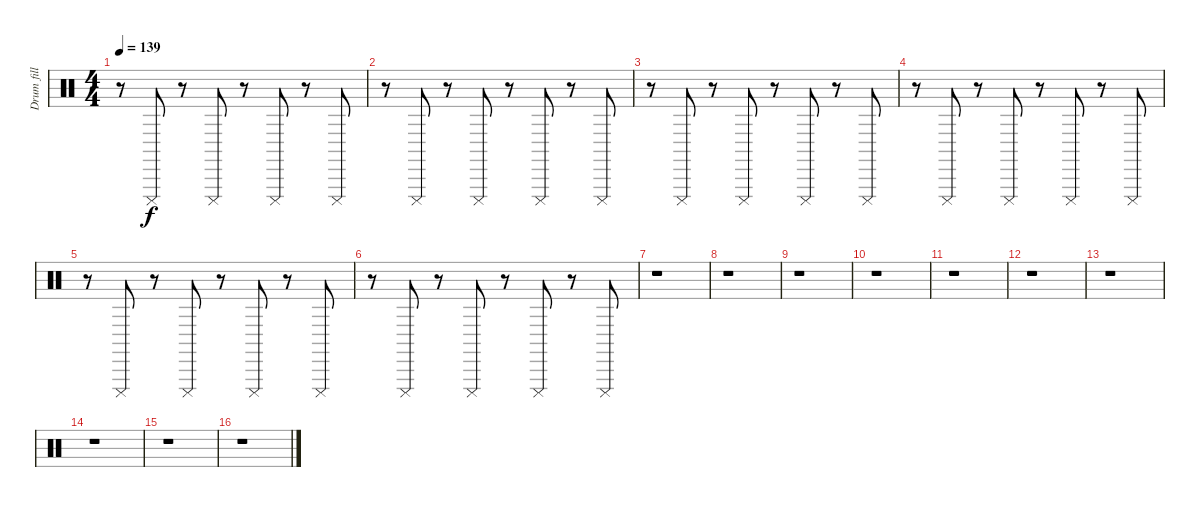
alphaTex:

\track ("Drum fill" "Drum fill") {instrument percussion}
\staff {score}
\articulation defaults
\ts (4 4)
\tempo 139
\clef neutral
\ks c
r.8{dy f} "Cuica (mute)".8 r.8 "Cuica (mute)".8 r.8 "Cuica (mute)".8 r.8 "Cuica (mute)".8 |
r.8 "Cuica (mute)".8 r.8 "Cuica (mute)".8 r.8 "Cuica (mute)".8 r.8 "Cuica (mute)".8 |
r.8 "Cuica (mute)".8 r.8 "Cuica (mute)".8 r.8 "Cuica (mute)".8 r.8 "Cuica (mute)".8 |
r.8 "Cuica (mute)".8 r.8 "Cuica (mute)".8 r.8 "Cuica (mute)".8 r.8 "Cuica (mute)".8 |
r.8 "Cuica (mute)".8 r.8 "Cuica (mute)".8 r.8 "Cuica (mute)".8 r.8 "Cuica (mute)".8 |
r.8 "Cuica (mute)".8 r.8 "Cuica (mute)".8 r.8 "Cuica (mute)".8 r.8 "Cuica (mute)".8 |
r.1 |
r.1 |
r.1 |
r.1 |
r.1 |
r.1 |
r.1 |
r.1 |
r.1 |
r.1
